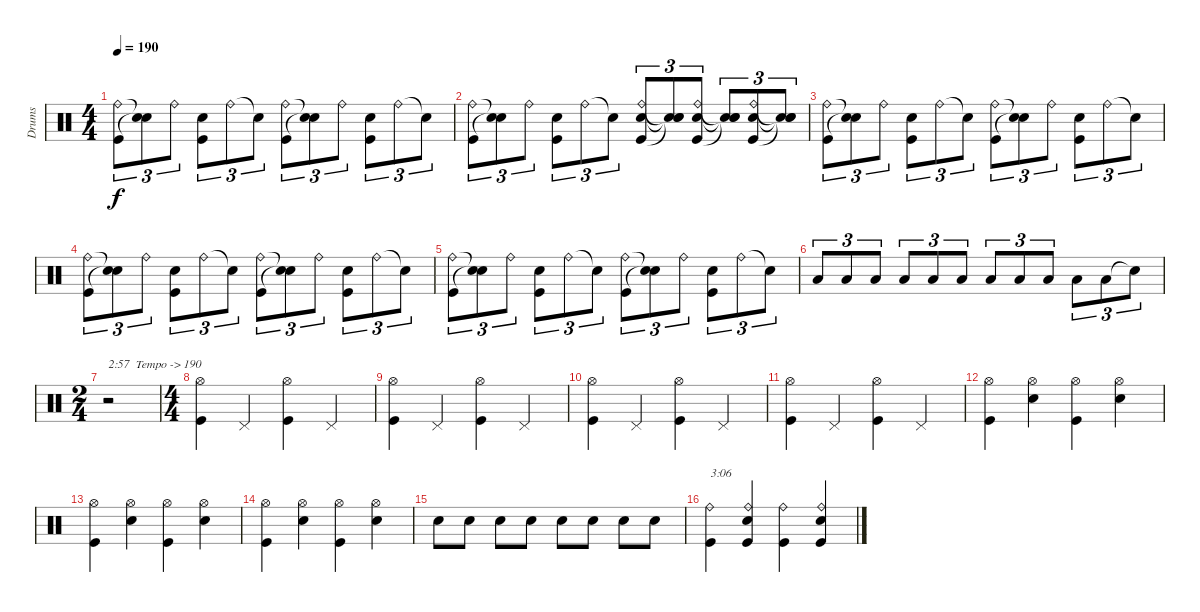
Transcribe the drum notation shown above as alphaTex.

\track ("Drums" "Drums") {instrument percussion}
\staff {score}
\articulation defaults
\ts (4 4)
\tempo 190
\clef neutral
\ks c
("Kick (hit)" "Ride (bell)").8{tu (3 2) dy f} ("Snare (hit)"{t} "Snare (hit)"{t}).8{tu (3 2)} "Ride (bell)".8{tu (3 2)} ("Kick (hit)" "Snare (hit) 2").8{tu (3 2)} "Ride (bell)".8{tu (3 2)} "Snare (hit)"{t}.8{tu (3 2)} ("Kick (hit)" "Ride (bell)").8{tu (3 2)} ("Snare (hit)"{t} "Snare (hit)"{t}).8{tu (3 2)} "Ride (bell)".8{tu (3 2)} ("Kick (hit)" "Snare (hit) 2").8{tu (3 2)} "Ride (bell)".8{tu (3 2)} "Snare (hit)"{t}.8{tu (3 2)} |
("Kick (hit)" "Ride (bell)").8{tu (3 2)} ("Snare (hit)"{t} "Snare (hit)"{t}).8{tu (3 2)} "Ride (bell)".8{tu (3 2)} ("Kick (hit)" "Snare (hit) 2").8{tu (3 2)} "Ride (bell)".8{tu (3 2)} "Snare (hit)"{t}.8{tu (3 2)} ("Kick (hit)" "Snare (hit) 2" "Ride (bell)").8{tu (3 2)} ("Snare (hit)"{t} "Snare (hit)"{t} "Snare (hit)"{t}).8{tu (3 2)} ("Kick (hit)" "Snare (hit) 2" "Ride (bell)").8{tu (3 2)} ("Snare (hit)"{t} "Snare (hit)"{t} "Snare (hit)"{t}).8{tu (3 2)} ("Kick (hit)" "Snare (hit) 2" "Ride (bell)").8{tu (3 2)} ("Snare (hit)"{t} "Snare (hit)"{t} "Snare (hit)"{t}).8{tu (3 2)} |
("Kick (hit)" "Ride (bell)").8{tu (3 2)} ("Snare (hit)"{t} "Snare (hit)"{t}).8{tu (3 2)} "Ride (bell)".8{tu (3 2)} ("Kick (hit)" "Snare (hit) 2").8{tu (3 2)} "Ride (bell)".8{tu (3 2)} "Snare (hit)"{t}.8{tu (3 2)} ("Kick (hit)" "Ride (bell)").8{tu (3 2)} ("Snare (hit)"{t} "Snare (hit)"{t}).8{tu (3 2)} "Ride (bell)".8{tu (3 2)} ("Kick (hit)" "Snare (hit) 2").8{tu (3 2)} "Ride (bell)".8{tu (3 2)} "Snare (hit)"{t}.8{tu (3 2)} |
("Kick (hit)" "Ride (bell)").8{tu (3 2)} ("Snare (hit)"{t} "Snare (hit)"{t}).8{tu (3 2)} "Ride (bell)".8{tu (3 2)} ("Kick (hit)" "Snare (hit) 2").8{tu (3 2)} "Ride (bell)".8{tu (3 2)} "Snare (hit)"{t}.8{tu (3 2)} ("Kick (hit)" "Ride (bell)").8{tu (3 2)} ("Snare (hit)"{t} "Snare (hit)"{t}).8{tu (3 2)} "Ride (bell)".8{tu (3 2)} ("Kick (hit)" "Snare (hit) 2").8{tu (3 2)} "Ride (bell)".8{tu (3 2)} "Snare (hit)"{t}.8{tu (3 2)} |
("Kick (hit)" "Ride (bell)").8{tu (3 2)} ("Snare (hit)"{t} "Snare (hit)"{t}).8{tu (3 2)} "Ride (bell)".8{tu (3 2)} ("Kick (hit)" "Snare (hit) 2").8{tu (3 2)} "Ride (bell)".8{tu (3 2)} "Snare (hit)"{t}.8{tu (3 2)} ("Kick (hit)" "Ride (bell)").8{tu (3 2)} ("Snare (hit)"{t} "Snare (hit)"{t}).8{tu (3 2)} "Ride (bell)".8{tu (3 2)} ("Kick (hit)" "Snare (hit) 2").8{tu (3 2)} "Ride (bell)".8{tu (3 2)} "Snare (hit)"{t}.8{tu (3 2)} |
"Low Floor Tom (hit)".8{tu (3 2)} "Low Floor Tom (hit)".8{tu (3 2)} "Low Floor Tom (hit)".8{tu (3 2)} "Low Floor Tom (hit)".8{tu (3 2)} "Low Floor Tom (hit)".8{tu (3 2)} "Low Floor Tom (hit)".8{tu (3 2)} "Low Floor Tom (hit)".8{tu (3 2)} "Low Floor Tom (hit)".8{tu (3 2)} "Low Floor Tom (hit)".8{tu (3 2)} "Low Floor Tom (hit)".8{tu (3 2)} "Low Floor Tom (hit)".8{tu (3 2)} "Snare (hit)"{t}.8{tu (3 2)} |
\ts (2 4)
r.2{txt "2:57  Tempo -> 190"} |
\ts (4 4)
("Kick (hit)" "Hi-Hat (open)").4 "Pedal Hi-Hat (hit)".4 ("Kick (hit)" "Hi-Hat (open)").4 "Pedal Hi-Hat (hit)".4 |
("Kick (hit)" "Hi-Hat (open)").4 "Pedal Hi-Hat (hit)".4 ("Kick (hit)" "Hi-Hat (open)").4 "Pedal Hi-Hat (hit)".4 |
("Kick (hit)" "Hi-Hat (open)").4 "Pedal Hi-Hat (hit)".4 ("Kick (hit)" "Hi-Hat (open)").4 "Pedal Hi-Hat (hit)".4 |
("Kick (hit)" "Hi-Hat (open)").4 "Pedal Hi-Hat (hit)".4 ("Kick (hit)" "Hi-Hat (open)").4 "Pedal Hi-Hat (hit)".4 |
("Kick (hit)" "Hi-Hat (open)").4 ("Snare (hit) 2" "Hi-Hat (open)").4 ("Kick (hit)" "Hi-Hat (open)").4 ("Snare (hit) 2" "Hi-Hat (open)").4 |
("Kick (hit)" "Hi-Hat (open)").4 ("Snare (hit) 2" "Hi-Hat (open)").4 ("Kick (hit)" "Hi-Hat (open)").4 ("Snare (hit) 2" "Hi-Hat (open)").4 |
("Kick (hit)" "Hi-Hat (open)").4 ("Snare (hit) 2" "Hi-Hat (open)").4 ("Kick (hit)" "Hi-Hat (open)").4 ("Snare (hit) 2" "Hi-Hat (open)").4 |
"Snare (hit) 2".8 "Snare (hit) 2".8 "Snare (hit) 2".8 "Snare (hit) 2".8 "Snare (hit) 2".8 "Snare (hit) 2".8 "Snare (hit) 2".8 "Snare (hit) 2".8 |
("Kick (hit)" "Ride (bell)").4{txt "3:06"} ("Kick (hit)" "Snare (hit) 2" "Ride (bell)").4 ("Kick (hit)" "Ride (bell)").4 ("Kick (hit)" "Snare (hit) 2" "Ride (bell)").4
